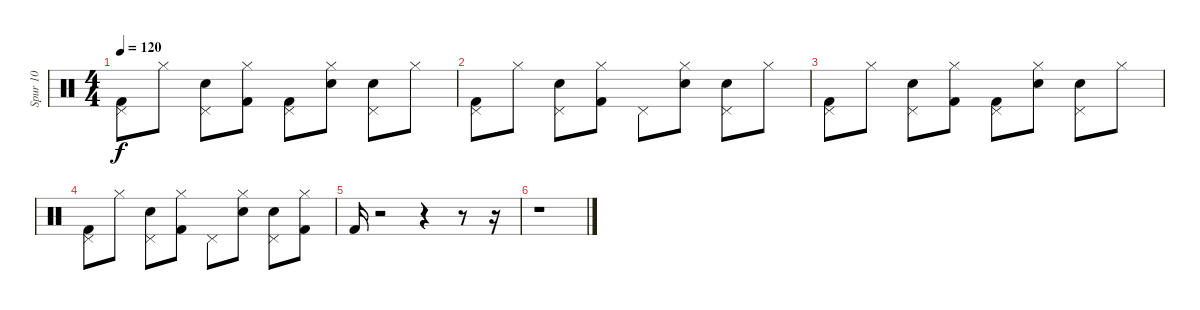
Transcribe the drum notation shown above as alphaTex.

\track ("Spur 10" "Spur 10") {instrument percussion}
\staff {score}
\articulation defaults
\ts (4 4)
\tempo 120
\clef neutral
\ks c
("Pedal Hi-Hat (hit)" "Kick (hit) 2").8{dy f} "Hi-Hat (closed)".8 ("Pedal Hi-Hat (hit)" "Snare (hit) 2").8 ("Kick (hit) 2" "Hi-Hat (closed)").8 ("Pedal Hi-Hat (hit)" "Kick (hit) 2").8 ("Hi-Hat (closed)" "Snare (hit) 2").8 ("Pedal Hi-Hat (hit)" "Snare (hit) 2").8 "Hi-Hat (closed)".8 |
("Pedal Hi-Hat (hit)" "Kick (hit) 2").8 "Hi-Hat (closed)".8 ("Snare (hit) 2" "Pedal Hi-Hat (hit)").8 ("Kick (hit) 2" "Hi-Hat (closed)").8 "Pedal Hi-Hat (hit)".8 ("Snare (hit) 2" "Hi-Hat (closed)").8 ("Snare (hit) 2" "Pedal Hi-Hat (hit)").8 "Hi-Hat (closed)".8 |
("Kick (hit) 2" "Pedal Hi-Hat (hit)").8 "Hi-Hat (closed)".8 ("Snare (hit) 2" "Pedal Hi-Hat (hit)").8 ("Hi-Hat (closed)" "Kick (hit) 2").8 ("Kick (hit) 2" "Pedal Hi-Hat (hit)").8 ("Hi-Hat (closed)" "Snare (hit) 2").8 ("Pedal Hi-Hat (hit)" "Snare (hit) 2").8 "Hi-Hat (closed)".8 |
("Kick (hit) 2" "Pedal Hi-Hat (hit)").8 "Hi-Hat (closed)".8 ("Snare (hit) 2" "Pedal Hi-Hat (hit)").8 ("Hi-Hat (closed)" "Kick (hit) 2").8 "Pedal Hi-Hat (hit)".8 ("Hi-Hat (closed)" "Snare (hit) 2").8 ("Pedal Hi-Hat (hit)" "Snare (hit) 2").8 ("Hi-Hat (closed)" "Kick (hit) 2").8 |
"Kick (hit) 2".16 r.2 r.4 r.8 r.16 |
r.1
